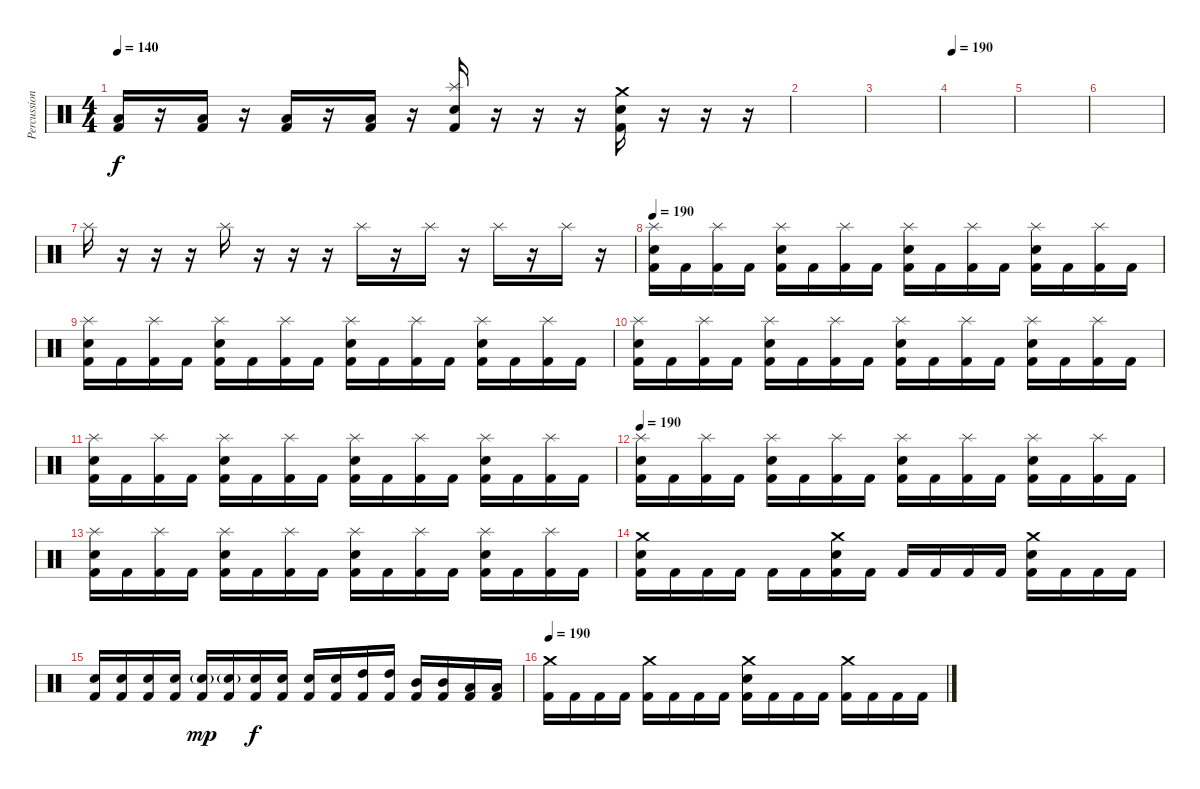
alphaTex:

\track ("Percussion" "Percussion") {instrument percussion}
\staff {score}
\articulation defaults
\ts (4 4)
\tempo 140
\clef neutral
\ks c
("Low Floor Tom (hit)" "Kick (hit) 2").16{dy f} r.16 ("Low Floor Tom (hit)" "Kick (hit) 2").16 r.16 ("Low Floor Tom (hit)" "Kick (hit) 2").16 r.16 ("Low Floor Tom (hit)" "Kick (hit) 2").16 r.16 ("Splash (hit)" "Electric Snare (hit)" "Kick (hit) 2").16 r.16 r.16 r.16 ("Crash medium (hit)" "Electric Snare (hit)" "Kick (hit) 2").16 r.16 r.16 r.16 |
|
|
\tempo 190
|
|
|
"Splash (hit)".16 r.16 r.16 r.16 "Splash (hit)".16 r.16 r.16 r.16 "Splash (hit)".16 r.16 "Splash (hit)".16 r.16 "Splash (hit)".16 r.16 "Splash (hit)".16 r.16 |
\tempo 190
("Splash (hit)" "Electric Snare (hit)" "Kick (hit) 2").16 "Kick (hit) 2".16 ("Splash (hit)" "Kick (hit) 2").16 "Kick (hit) 2".16 ("Splash (hit)" "Electric Snare (hit)" "Kick (hit) 2").16 "Kick (hit) 2".16 ("Splash (hit)" "Kick (hit) 2").16 "Kick (hit) 2".16 ("Splash (hit)" "Electric Snare (hit)" "Kick (hit) 2").16 "Kick (hit) 2".16 ("Splash (hit)" "Kick (hit) 2").16 "Kick (hit) 2".16 ("Splash (hit)" "Electric Snare (hit)" "Kick (hit) 2").16 "Kick (hit) 2".16 ("Splash (hit)" "Kick (hit) 2").16 "Kick (hit) 2".16 |
("Splash (hit)" "Electric Snare (hit)" "Kick (hit) 2").16 "Kick (hit) 2".16 ("Splash (hit)" "Kick (hit) 2").16 "Kick (hit) 2".16 ("Splash (hit)" "Electric Snare (hit)" "Kick (hit) 2").16 "Kick (hit) 2".16 ("Splash (hit)" "Kick (hit) 2").16 "Kick (hit) 2".16 ("Splash (hit)" "Electric Snare (hit)" "Kick (hit) 2").16 "Kick (hit) 2".16 ("Splash (hit)" "Kick (hit) 2").16 "Kick (hit) 2".16 ("Splash (hit)" "Electric Snare (hit)" "Kick (hit) 2").16 "Kick (hit) 2".16 ("Splash (hit)" "Kick (hit) 2").16 "Kick (hit) 2".16 |
("Splash (hit)" "Electric Snare (hit)" "Kick (hit) 2").16 "Kick (hit) 2".16 ("Splash (hit)" "Kick (hit) 2").16 "Kick (hit) 2".16 ("Splash (hit)" "Electric Snare (hit)" "Kick (hit) 2").16 "Kick (hit) 2".16 ("Splash (hit)" "Kick (hit) 2").16 "Kick (hit) 2".16 ("Splash (hit)" "Electric Snare (hit)" "Kick (hit) 2").16 "Kick (hit) 2".16 ("Splash (hit)" "Kick (hit) 2").16 "Kick (hit) 2".16 ("Splash (hit)" "Electric Snare (hit)" "Kick (hit) 2").16 "Kick (hit) 2".16 ("Splash (hit)" "Kick (hit) 2").16 "Kick (hit) 2".16 |
("Splash (hit)" "Electric Snare (hit)" "Kick (hit) 2").16 "Kick (hit) 2".16 ("Splash (hit)" "Kick (hit) 2").16 "Kick (hit) 2".16 ("Splash (hit)" "Electric Snare (hit)" "Kick (hit) 2").16 "Kick (hit) 2".16 ("Splash (hit)" "Kick (hit) 2").16 "Kick (hit) 2".16 ("Splash (hit)" "Electric Snare (hit)" "Kick (hit) 2").16 "Kick (hit) 2".16 ("Splash (hit)" "Kick (hit) 2").16 "Kick (hit) 2".16 ("Splash (hit)" "Electric Snare (hit)" "Kick (hit) 2").16 "Kick (hit) 2".16 ("Splash (hit)" "Kick (hit) 2").16 "Kick (hit) 2".16 |
\tempo 190
("Splash (hit)" "Electric Snare (hit)" "Kick (hit) 2").16 "Kick (hit) 2".16 ("Splash (hit)" "Kick (hit) 2").16 "Kick (hit) 2".16 ("Splash (hit)" "Electric Snare (hit)" "Kick (hit) 2").16 "Kick (hit) 2".16 ("Splash (hit)" "Kick (hit) 2").16 "Kick (hit) 2".16 ("Splash (hit)" "Electric Snare (hit)" "Kick (hit) 2").16 "Kick (hit) 2".16 ("Splash (hit)" "Kick (hit) 2").16 "Kick (hit) 2".16 ("Splash (hit)" "Electric Snare (hit)" "Kick (hit) 2").16 "Kick (hit) 2".16 ("Splash (hit)" "Kick (hit) 2").16 "Kick (hit) 2".16 |
("Splash (hit)" "Electric Snare (hit)" "Kick (hit) 2").16 "Kick (hit) 2".16 ("Splash (hit)" "Kick (hit) 2").16 "Kick (hit) 2".16 ("Splash (hit)" "Electric Snare (hit)" "Kick (hit) 2").16 "Kick (hit) 2".16 ("Splash (hit)" "Kick (hit) 2").16 "Kick (hit) 2".16 ("Splash (hit)" "Electric Snare (hit)" "Kick (hit) 2").16 "Kick (hit) 2".16 ("Splash (hit)" "Kick (hit) 2").16 "Kick (hit) 2".16 ("Splash (hit)" "Electric Snare (hit)" "Kick (hit) 2").16 "Kick (hit) 2".16 ("Splash (hit)" "Kick (hit) 2").16 "Kick (hit) 2".16 |
("Crash medium (hit)" "Electric Snare (hit)" "Kick (hit) 2").16 "Kick (hit) 2".16 "Kick (hit) 2".16 "Kick (hit) 2".16 "Kick (hit) 2".16 "Kick (hit) 2".16 ("Crash medium (hit)" "Electric Snare (hit)" "Kick (hit) 2").16 "Kick (hit) 2".16 "Kick (hit) 2".16 "Kick (hit) 2".16 "Kick (hit) 2".16 "Kick (hit) 2".16 ("Crash medium (hit)" "Electric Snare (hit)" "Kick (hit) 2").16 "Kick (hit) 2".16 "Kick (hit) 2".16 "Kick (hit) 2".16 |
("Electric Snare (hit)" "Kick (hit) 2").16 ("Electric Snare (hit)" "Kick (hit) 2").16 ("Electric Snare (hit)" "Kick (hit) 2").16 ("Electric Snare (hit)" "Kick (hit) 2").16 ("Electric Snare (hit)"{g} "Kick (hit) 2").16{dy mp} ("Electric Snare (hit)"{g} "Kick (hit) 2").16 ("Electric Snare (hit)" "Kick (hit) 2").16{dy f} ("Electric Snare (hit)" "Kick (hit) 2").16 ("Electric Snare (hit)" "Kick (hit) 2").16 ("Electric Snare (hit)" "Kick (hit) 2").16 ("High Tom (hit)" "Kick (hit) 2").16 ("High Tom (hit)" "Kick (hit) 2").16 ("Mid Tom (hit)" "Kick (hit) 2").16 ("Mid Tom (hit)" "Kick (hit) 2").16 ("Low Tom (hit)" "Kick (hit) 2").16 ("Low Tom (hit)" "Kick (hit) 2").16 |
\tempo 190
("Crash medium (hit)" "Kick (hit) 2").16 "Kick (hit) 2".16 "Kick (hit) 2".16 "Kick (hit) 2".16 ("Crash medium (hit)" "Kick (hit) 2").16 "Kick (hit) 2".16 "Kick (hit) 2".16 "Kick (hit) 2".16 ("Crash medium (hit)" "Electric Snare (hit)" "Kick (hit) 2").16 "Kick (hit) 2".16 "Kick (hit) 2".16 "Kick (hit) 2".16 ("Crash medium (hit)" "Kick (hit) 2").16 "Kick (hit) 2".16 "Kick (hit) 2".16 "Kick (hit) 2".16
